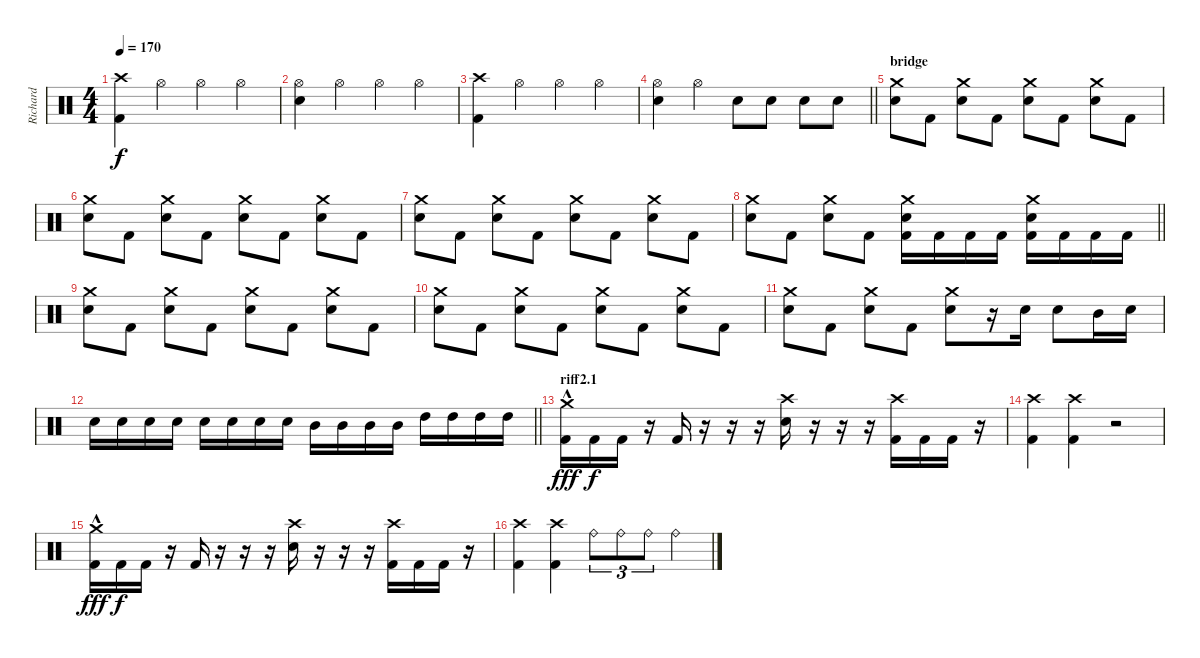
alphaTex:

\track ("Richard" "Richard") {instrument percussion}
\staff {score}
\articulation defaults
\ts (4 4)
\tempo 170
\clef neutral
\ks c
("Crash high (hit)" "Kick (hit) 2").4{dy f} "Hi-Hat (open)".4 "Hi-Hat (open)".4 "Hi-Hat (open)".4 |
("Hi-Hat (open)" "Electric Snare (hit)").4 "Hi-Hat (open)".4 "Hi-Hat (open)".4 "Hi-Hat (open)".4 |
("Crash high (hit)" "Kick (hit) 2").4 "Hi-Hat (open)".4 "Hi-Hat (open)".4 "Hi-Hat (open)".4 |
\barLineRight lightlight
("Hi-Hat (open)" "Electric Snare (hit)").4 "Hi-Hat (open)".4 "Electric Snare (hit)".8 "Electric Snare (hit)".8 "Electric Snare (hit)".8 "Electric Snare (hit)".8 |
\section ("" "bridge")
("Crash medium (hit)" "Electric Snare (hit)").8 "Kick (hit) 2".8 ("Crash medium (hit)" "Electric Snare (hit)").8 "Kick (hit) 2".8 ("Crash medium (hit)" "Electric Snare (hit)").8 "Kick (hit) 2".8 ("Crash medium (hit)" "Electric Snare (hit)").8 "Kick (hit) 2".8 |
("Crash medium (hit)" "Electric Snare (hit)").8 "Kick (hit) 2".8 ("Crash medium (hit)" "Electric Snare (hit)").8 "Kick (hit) 2".8 ("Crash medium (hit)" "Electric Snare (hit)").8 "Kick (hit) 2".8 ("Crash medium (hit)" "Electric Snare (hit)").8 "Kick (hit) 2".8 |
("Crash medium (hit)" "Electric Snare (hit)").8 "Kick (hit) 2".8 ("Crash medium (hit)" "Electric Snare (hit)").8 "Kick (hit) 2".8 ("Crash medium (hit)" "Electric Snare (hit)").8 "Kick (hit) 2".8 ("Crash medium (hit)" "Electric Snare (hit)").8 "Kick (hit) 2".8 |
\barLineRight lightlight
("Crash medium (hit)" "Electric Snare (hit)").8 "Kick (hit) 2".8 ("Crash medium (hit)" "Electric Snare (hit)").8 "Kick (hit) 2".8 ("Crash medium (hit)" "Electric Snare (hit)" "Kick (hit) 2").16 "Kick (hit) 2".16 "Kick (hit) 2".16 "Kick (hit) 2".16 ("Crash medium (hit)" "Electric Snare (hit)" "Kick (hit) 2").16 "Kick (hit) 2".16 "Kick (hit) 2".16 "Kick (hit) 2".16 |
("Crash medium (hit)" "Electric Snare (hit)").8 "Kick (hit) 2".8 ("Crash medium (hit)" "Electric Snare (hit)").8 "Kick (hit) 2".8 ("Crash medium (hit)" "Electric Snare (hit)").8 "Kick (hit) 2".8 ("Crash medium (hit)" "Electric Snare (hit)").8 "Kick (hit) 2".8 |
("Crash medium (hit)" "Electric Snare (hit)").8 "Kick (hit) 2".8 ("Crash medium (hit)" "Electric Snare (hit)").8 "Kick (hit) 2".8 ("Crash medium (hit)" "Electric Snare (hit)").8 "Kick (hit) 2".8 ("Crash medium (hit)" "Electric Snare (hit)").8 "Kick (hit) 2".8 |
("Crash medium (hit)" "Electric Snare (hit)").8 "Kick (hit) 2".8 ("Crash medium (hit)" "Electric Snare (hit)").8 "Kick (hit) 2".8 ("Crash medium (hit)" "Electric Snare (hit)").8 r.16 "Electric Snare (hit)".16 "Electric Snare (hit)".8 "Mid Tom (hit)".16 "Electric Snare (hit)".16 |
\barLineRight lightlight "Electric Snare (hit)".16 "Electric Snare (hit)".16 "Electric Snare (hit)".16 "Electric Snare (hit)".16 "Electric Snare (hit)".16 "Electric Snare (hit)".16 "Electric Snare (hit)".16 "Electric Snare (hit)".16 "Mid Tom (hit)".16 "Mid Tom (hit)".16 "Mid Tom (hit)".16 "Mid Tom (hit)".16 "High Tom (hit)".16 "High Tom (hit)".16 "High Tom (hit)".16 "High Tom (hit)".16
|
\section ("" "riff2.1")
("Crash medium (hit)"{hac} "Kick (hit) 2").16{dy fff} "Kick (hit) 2".16{dy f} "Kick (hit) 2".16 r.16 "Kick (hit) 2".16 r.16 r.16 r.16 ("Crash high (hit)" "Electric Snare (hit)").16 r.16 r.16 r.16 ("Crash high (hit)" "Kick (hit) 2").16 "Kick (hit) 2".16 "Kick (hit) 2".16 r.16 |
("Crash high (hit)" "Kick (hit) 2").4 ("Crash high (hit)" "Kick (hit) 2").4 r.2 |
("Crash medium (hit)"{hac} "Kick (hit) 2").16{dy fff} "Kick (hit) 2".16{dy f} "Kick (hit) 2".16 r.16 "Kick (hit) 2".16 r.16 r.16 r.16 ("Crash high (hit)" "Electric Snare (hit)").16 r.16 r.16 r.16 ("Crash high (hit)" "Kick (hit) 2").16 "Kick (hit) 2".16 "Kick (hit) 2".16 r.16 |
("Crash high (hit)" "Kick (hit) 2").4 ("Crash high (hit)" "Kick (hit) 2").4 "Ride (bell)".8{tu (3 2)} "Ride (bell)".8{tu (3 2)} "Ride (bell)".8{tu (3 2)} "Ride (bell)".4
